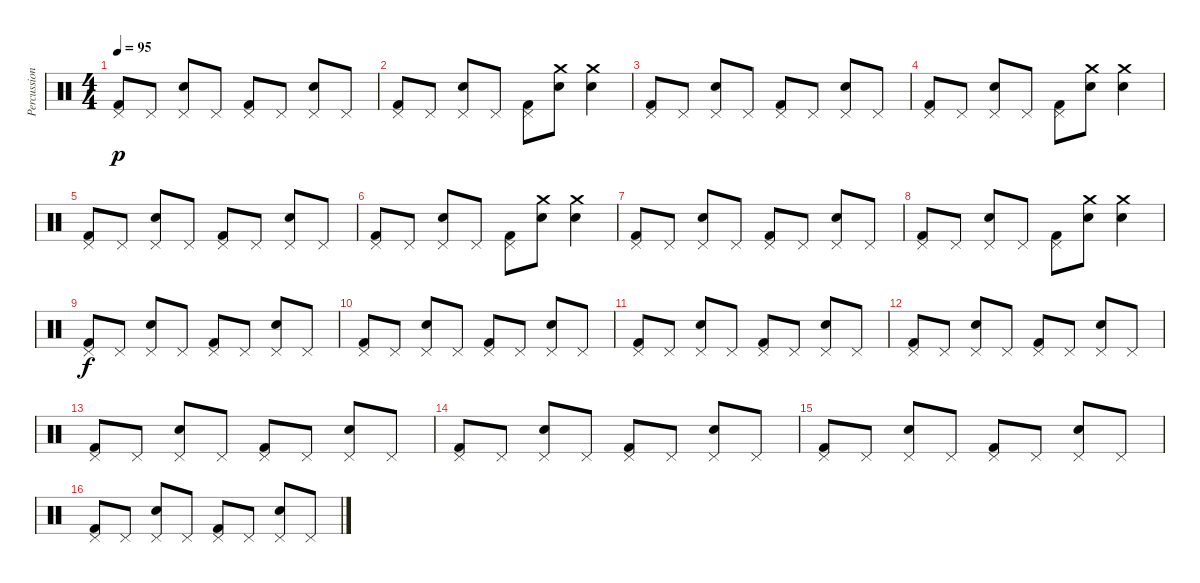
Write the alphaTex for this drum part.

\track ("Percussions" "Percussion") {instrument percussion}
\staff {score}
\articulation defaults
\ts (4 4)
\tempo 95
\clef neutral
\ks c
("Pedal Hi-Hat (hit)" "Kick (hit) 2").8{dy p} "Pedal Hi-Hat (hit)".8 ("Pedal Hi-Hat (hit)" "Electric Snare (hit)").8 "Pedal Hi-Hat (hit)".8 ("Pedal Hi-Hat (hit)" "Kick (hit) 2").8 "Pedal Hi-Hat (hit)".8 ("Pedal Hi-Hat (hit)" "Electric Snare (hit)").8 "Pedal Hi-Hat (hit)".8 |
("Pedal Hi-Hat (hit)" "Kick (hit) 2").8 "Pedal Hi-Hat (hit)".8 ("Pedal Hi-Hat (hit)" "Electric Snare (hit)").8 "Pedal Hi-Hat (hit)".8 ("Pedal Hi-Hat (hit)" "Kick (hit) 2").8 ("Crash medium (hit)" "Electric Snare (hit)").8 ("Crash medium (hit)" "Electric Snare (hit)").4 |
("Pedal Hi-Hat (hit)" "Kick (hit) 2").8 "Pedal Hi-Hat (hit)".8 ("Pedal Hi-Hat (hit)" "Electric Snare (hit)").8 "Pedal Hi-Hat (hit)".8 ("Pedal Hi-Hat (hit)" "Kick (hit) 2").8 "Pedal Hi-Hat (hit)".8 ("Pedal Hi-Hat (hit)" "Electric Snare (hit)").8 "Pedal Hi-Hat (hit)".8 |
("Pedal Hi-Hat (hit)" "Kick (hit) 2").8 "Pedal Hi-Hat (hit)".8 ("Pedal Hi-Hat (hit)" "Electric Snare (hit)").8 "Pedal Hi-Hat (hit)".8 ("Pedal Hi-Hat (hit)" "Kick (hit) 2").8 ("Crash medium (hit)" "Electric Snare (hit)").8 ("Crash medium (hit)" "Electric Snare (hit)").4 |
("Pedal Hi-Hat (hit)" "Kick (hit) 2").8 "Pedal Hi-Hat (hit)".8 ("Pedal Hi-Hat (hit)" "Electric Snare (hit)").8 "Pedal Hi-Hat (hit)".8 ("Pedal Hi-Hat (hit)" "Kick (hit) 2").8 "Pedal Hi-Hat (hit)".8 ("Pedal Hi-Hat (hit)" "Electric Snare (hit)").8 "Pedal Hi-Hat (hit)".8 |
("Pedal Hi-Hat (hit)" "Kick (hit) 2").8 "Pedal Hi-Hat (hit)".8 ("Pedal Hi-Hat (hit)" "Electric Snare (hit)").8 "Pedal Hi-Hat (hit)".8 ("Pedal Hi-Hat (hit)" "Kick (hit) 2").8 ("Crash medium (hit)" "Electric Snare (hit)").8 ("Crash medium (hit)" "Electric Snare (hit)").4 |
("Pedal Hi-Hat (hit)" "Kick (hit) 2").8 "Pedal Hi-Hat (hit)".8 ("Pedal Hi-Hat (hit)" "Electric Snare (hit)").8 "Pedal Hi-Hat (hit)".8 ("Pedal Hi-Hat (hit)" "Kick (hit) 2").8 "Pedal Hi-Hat (hit)".8 ("Pedal Hi-Hat (hit)" "Electric Snare (hit)").8 "Pedal Hi-Hat (hit)".8 |
("Pedal Hi-Hat (hit)" "Kick (hit) 2").8 "Pedal Hi-Hat (hit)".8 ("Pedal Hi-Hat (hit)" "Electric Snare (hit)").8 "Pedal Hi-Hat (hit)".8 ("Pedal Hi-Hat (hit)" "Kick (hit) 2").8 ("Crash medium (hit)" "Electric Snare (hit)").8 ("Crash medium (hit)" "Electric Snare (hit)").4 |
("Pedal Hi-Hat (hit)" "Kick (hit) 2").8{dy f} "Pedal Hi-Hat (hit)".8 ("Pedal Hi-Hat (hit)" "Electric Snare (hit)").8 "Pedal Hi-Hat (hit)".8 ("Pedal Hi-Hat (hit)" "Kick (hit) 2").8 "Pedal Hi-Hat (hit)".8 ("Pedal Hi-Hat (hit)" "Electric Snare (hit)").8 "Pedal Hi-Hat (hit)".8 |
("Pedal Hi-Hat (hit)" "Kick (hit) 2").8 "Pedal Hi-Hat (hit)".8 ("Pedal Hi-Hat (hit)" "Electric Snare (hit)").8 "Pedal Hi-Hat (hit)".8 ("Pedal Hi-Hat (hit)" "Kick (hit) 2").8 "Pedal Hi-Hat (hit)".8 ("Pedal Hi-Hat (hit)" "Electric Snare (hit)").8 "Pedal Hi-Hat (hit)".8 |
("Pedal Hi-Hat (hit)" "Kick (hit) 2").8 "Pedal Hi-Hat (hit)".8 ("Pedal Hi-Hat (hit)" "Electric Snare (hit)").8 "Pedal Hi-Hat (hit)".8 ("Pedal Hi-Hat (hit)" "Kick (hit) 2").8 "Pedal Hi-Hat (hit)".8 ("Pedal Hi-Hat (hit)" "Electric Snare (hit)").8 "Pedal Hi-Hat (hit)".8 |
("Pedal Hi-Hat (hit)" "Kick (hit) 2").8 "Pedal Hi-Hat (hit)".8 ("Pedal Hi-Hat (hit)" "Electric Snare (hit)").8 "Pedal Hi-Hat (hit)".8 ("Pedal Hi-Hat (hit)" "Kick (hit) 2").8 "Pedal Hi-Hat (hit)".8 ("Pedal Hi-Hat (hit)" "Electric Snare (hit)").8 "Pedal Hi-Hat (hit)".8 |
("Pedal Hi-Hat (hit)" "Kick (hit) 2").8 "Pedal Hi-Hat (hit)".8 ("Pedal Hi-Hat (hit)" "Electric Snare (hit)").8 "Pedal Hi-Hat (hit)".8 ("Pedal Hi-Hat (hit)" "Kick (hit) 2").8 "Pedal Hi-Hat (hit)".8 ("Pedal Hi-Hat (hit)" "Electric Snare (hit)").8 "Pedal Hi-Hat (hit)".8 |
("Pedal Hi-Hat (hit)" "Kick (hit) 2").8 "Pedal Hi-Hat (hit)".8 ("Pedal Hi-Hat (hit)" "Electric Snare (hit)").8 "Pedal Hi-Hat (hit)".8 ("Pedal Hi-Hat (hit)" "Kick (hit) 2").8 "Pedal Hi-Hat (hit)".8 ("Pedal Hi-Hat (hit)" "Electric Snare (hit)").8 "Pedal Hi-Hat (hit)".8 |
("Pedal Hi-Hat (hit)" "Kick (hit) 2").8 "Pedal Hi-Hat (hit)".8 ("Pedal Hi-Hat (hit)" "Electric Snare (hit)").8 "Pedal Hi-Hat (hit)".8 ("Pedal Hi-Hat (hit)" "Kick (hit) 2").8 "Pedal Hi-Hat (hit)".8 ("Pedal Hi-Hat (hit)" "Electric Snare (hit)").8 "Pedal Hi-Hat (hit)".8 |
("Pedal Hi-Hat (hit)" "Kick (hit) 2").8 "Pedal Hi-Hat (hit)".8 ("Pedal Hi-Hat (hit)" "Electric Snare (hit)").8 "Pedal Hi-Hat (hit)".8 ("Pedal Hi-Hat (hit)" "Kick (hit) 2").8 "Pedal Hi-Hat (hit)".8 ("Pedal Hi-Hat (hit)" "Electric Snare (hit)").8 "Pedal Hi-Hat (hit)".8
